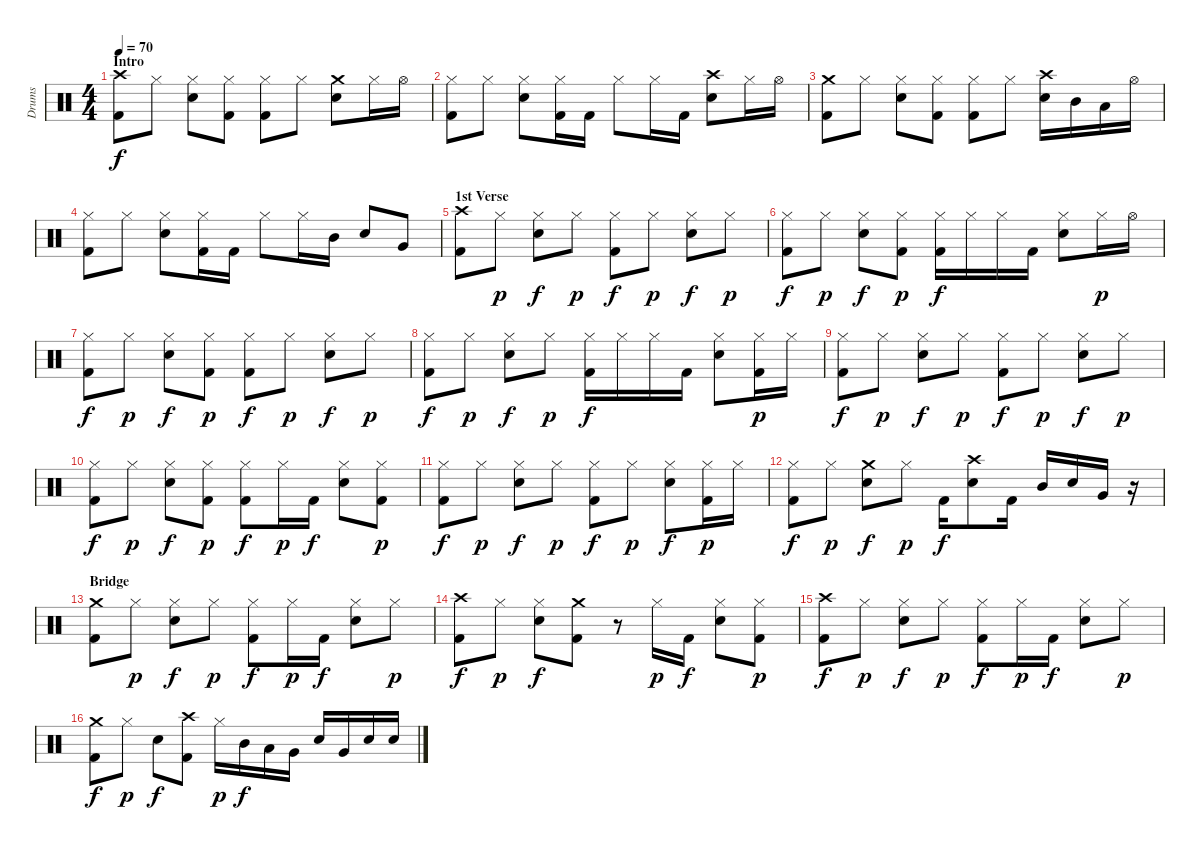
\track ("Drums" "Drums") {instrument percussion}
\staff {score}
\articulation defaults
\ts (4 4)
\section ("" "Intro")
\tempo 70
\clef neutral
\ks c
("Crash high (hit)" "Kick (hit) 2").8{dy f} "Hi-Hat (closed)".8 ("Hi-Hat (closed)" "Snare (hit) 2").8 ("Hi-Hat (closed)" "Kick (hit) 2").8 ("Hi-Hat (closed)" "Kick (hit) 2").8 "Hi-Hat (closed)".8 ("Crash medium (hit)" "Snare (hit) 2").8 "Hi-Hat (closed)".16 "Hi-Hat (open)".16 |
("Hi-Hat (closed)" "Kick (hit) 2").8 "Hi-Hat (closed)".8 ("Hi-Hat (closed)" "Snare (hit) 2").8 ("Hi-Hat (closed)" "Kick (hit) 2").16 "Kick (hit) 2".16 "Hi-Hat (closed)".8 "Hi-Hat (closed)".16 "Kick (hit) 2".16 ("Crash high (hit)" "Snare (hit) 2").8 "Hi-Hat (closed)".16 "Hi-Hat (open)".16 |
("Crash medium (hit)" "Kick (hit) 2").8 "Hi-Hat (closed)".8 ("Hi-Hat (closed)" "Snare (hit) 2").8 ("Hi-Hat (closed)" "Kick (hit) 2").8 ("Hi-Hat (closed)" "Kick (hit) 2").8 "Hi-Hat (closed)".8 ("Crash high (hit)" "Snare (hit) 2").16 "Mid Tom (hit)".16 "Low Tom (hit)".16 "Hi-Hat (open)".16 |
("Hi-Hat (closed)" "Kick (hit) 2").8 "Hi-Hat (closed)".8 ("Hi-Hat (closed)" "Snare (hit) 2").8 ("Hi-Hat (closed)" "Kick (hit) 2").16 "Kick (hit) 2".16 "Hi-Hat (closed)".8 "Hi-Hat (closed)".16 "Mid Tom (hit)".16 "Snare (hit) 2".8 "Very Low Tom (hit)".8 |
\section ("" "1st Verse")
("Crash high (hit)" "Kick (hit) 2").8 "Hi-Hat (closed)".8{dy p} ("Hi-Hat (closed)" "Snare (hit) 2").8{dy f} "Hi-Hat (closed)".8{dy p} ("Hi-Hat (closed)" "Kick (hit) 2").8{dy f} "Hi-Hat (closed)".8{dy p} ("Hi-Hat (closed)" "Snare (hit) 2").8{dy f} "Hi-Hat (closed)".8{dy p} |
("Hi-Hat (closed)" "Kick (hit) 2").8{dy f} "Hi-Hat (closed)".8{dy p} ("Hi-Hat (closed)" "Snare (hit) 2").8{dy f} ("Hi-Hat (closed)" "Kick (hit) 2").8{dy p} ("Hi-Hat (closed)" "Kick (hit) 2").16{dy f} "Hi-Hat (closed)".16 "Hi-Hat (closed)".16 "Kick (hit) 2".16 ("Hi-Hat (closed)" "Snare (hit) 2").8 "Hi-Hat (closed)".16{dy p} "Hi-Hat (open)".16 |
("Hi-Hat (closed)" "Kick (hit) 2").8{dy f} "Hi-Hat (closed)".8{dy p} ("Hi-Hat (closed)" "Snare (hit) 2").8{dy f} ("Hi-Hat (closed)" "Kick (hit) 2").8{dy p} ("Hi-Hat (closed)" "Kick (hit) 2").8{dy f} "Hi-Hat (closed)".8{dy p} ("Hi-Hat (closed)" "Snare (hit) 2").8{dy f} "Hi-Hat (closed)".8{dy p} |
("Hi-Hat (closed)" "Kick (hit) 2").8{dy f} "Hi-Hat (closed)".8{dy p} ("Hi-Hat (closed)" "Snare (hit) 2").8{dy f} "Hi-Hat (closed)".8{dy p} ("Hi-Hat (closed)" "Kick (hit) 2").16{dy f} "Hi-Hat (closed)".16 "Hi-Hat (closed)".16 "Kick (hit) 2".16 ("Hi-Hat (closed)" "Snare (hit) 2").8 ("Hi-Hat (closed)" "Kick (hit) 2").16{dy p} "Hi-Hat (closed)".16 |
("Hi-Hat (closed)" "Kick (hit) 2").8{dy f} "Hi-Hat (closed)".8{dy p} ("Hi-Hat (closed)" "Snare (hit) 2").8{dy f} "Hi-Hat (closed)".8{dy p} ("Hi-Hat (closed)" "Kick (hit) 2").8{dy f} "Hi-Hat (closed)".8{dy p} ("Hi-Hat (closed)" "Snare (hit) 2").8{dy f} "Hi-Hat (closed)".8{dy p} |
("Hi-Hat (closed)" "Kick (hit) 2").8{dy f} "Hi-Hat (closed)".8{dy p} ("Hi-Hat (closed)" "Snare (hit) 2").8{dy f} ("Hi-Hat (closed)" "Kick (hit) 2").8{dy p} ("Hi-Hat (closed)" "Kick (hit) 2").8{dy f} "Hi-Hat (closed)".16{dy p} "Kick (hit) 2".16{dy f} ("Hi-Hat (closed)" "Snare (hit) 2").8 ("Hi-Hat (closed)" "Kick (hit) 2").8{dy p} |
("Hi-Hat (closed)" "Kick (hit) 2").8{dy f} "Hi-Hat (closed)".8{dy p} ("Hi-Hat (closed)" "Snare (hit) 2").8{dy f} "Hi-Hat (closed)".8{dy p} ("Hi-Hat (closed)" "Kick (hit) 2").8{dy f} "Hi-Hat (closed)".8{dy p} ("Hi-Hat (closed)" "Snare (hit) 2").8{dy f} ("Hi-Hat (closed)" "Kick (hit) 2").16{dy p} "Hi-Hat (closed)".16 |
("Hi-Hat (closed)" "Kick (hit) 2").8{dy f} "Hi-Hat (closed)".8{dy p} ("Crash medium (hit)" "Snare (hit) 2").8{dy f} "Hi-Hat (closed)".8{dy p} "Kick (hit) 2".16{dy f} ("Crash high (hit)" "Snare (hit) 2").8 "Kick (hit) 2".16 "Mid Tom (hit)".16 "Snare (hit) 2".16 "Very Low Tom (hit)".16 r.16 |
\section ("" "Bridge")
("Crash medium (hit)" "Kick (hit) 2").8 "Hi-Hat (closed)".8{dy p} ("Hi-Hat (closed)" "Snare (hit) 2").8{dy f} "Hi-Hat (closed)".8{dy p} ("Hi-Hat (closed)" "Kick (hit) 2").8{dy f} "Hi-Hat (closed)".16{dy p} "Kick (hit) 2".16{dy f} ("Hi-Hat (closed)" "Snare (hit) 2").8 "Hi-Hat (closed)".8{dy p} |
("Crash high (hit)" "Kick (hit) 2").8{dy f} "Hi-Hat (closed)".8{dy p} ("Hi-Hat (closed)" "Snare (hit) 2").8{dy f} ("Crash medium (hit)" "Kick (hit) 2").8 r.8 "Hi-Hat (closed)".16{dy p} "Kick (hit) 2".16{dy f} ("Hi-Hat (closed)" "Snare (hit) 2").8 ("Hi-Hat (closed)" "Kick (hit) 2").8{dy p} |
("Crash high (hit)" "Kick (hit) 2").8{dy f} "Hi-Hat (closed)".8{dy p} ("Hi-Hat (closed)" "Snare (hit) 2").8{dy f} "Hi-Hat (closed)".8{dy p} ("Hi-Hat (closed)" "Kick (hit) 2").8{dy f} "Hi-Hat (closed)".16{dy p} "Kick (hit) 2".16{dy f} ("Hi-Hat (closed)" "Snare (hit) 2").8 "Hi-Hat (closed)".8{dy p} |
("Crash medium (hit)" "Kick (hit) 2").8{dy f} "Hi-Hat (closed)".8{dy p} "Snare (hit) 2".8{dy f} ("Crash high (hit)" "Kick (hit) 2").8 "Hi-Hat (closed)".16{dy p} "Mid Tom (hit)".16{dy f} "Low Tom (hit)".16 "Very Low Tom (hit)".16 "Snare (hit) 2".16 "Very Low Tom (hit)".16 "Snare (hit) 2".16 "Snare (hit) 2".16
